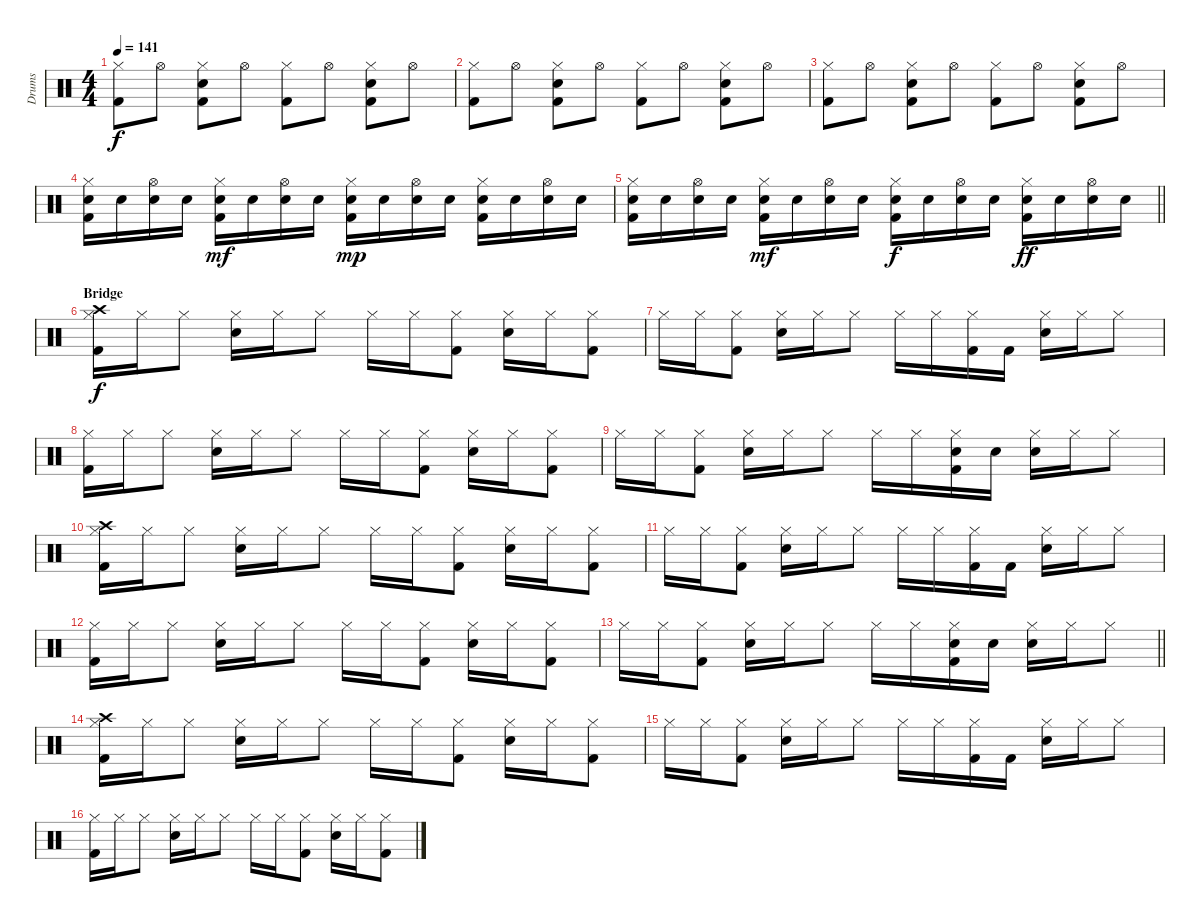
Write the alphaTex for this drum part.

\track ("Drums" "Drums") {instrument percussion}
\staff {score}
\articulation defaults
\ts (4 4)
\tempo 141
\clef neutral
\ks c
("Hi-Hat (closed)" "Kick (hit) 2").8{dy f} "Hi-Hat (open)".8 ("Hi-Hat (closed)" "Snare (hit) 2" "Kick (hit) 2").8 "Hi-Hat (open)".8 ("Hi-Hat (closed)" "Kick (hit) 2").8 "Hi-Hat (open)".8 ("Hi-Hat (closed)" "Snare (hit) 2" "Kick (hit) 2").8 "Hi-Hat (open)".8 |
("Hi-Hat (closed)" "Kick (hit) 2").8 "Hi-Hat (open)".8 ("Hi-Hat (closed)" "Snare (hit) 2" "Kick (hit) 2").8 "Hi-Hat (open)".8 ("Hi-Hat (closed)" "Kick (hit) 2").8 "Hi-Hat (open)".8 ("Hi-Hat (closed)" "Snare (hit) 2" "Kick (hit) 2").8 "Hi-Hat (open)".8 |
("Hi-Hat (closed)" "Kick (hit) 2").8 "Hi-Hat (open)".8 ("Hi-Hat (closed)" "Snare (hit) 2" "Kick (hit) 2").8 "Hi-Hat (open)".8 ("Hi-Hat (closed)" "Kick (hit) 2").8 "Hi-Hat (open)".8 ("Hi-Hat (closed)" "Snare (hit) 2" "Kick (hit) 2").8 "Hi-Hat (open)".8 |
("Hi-Hat (closed)" "Snare (hit) 2" "Kick (hit) 2").16 "Snare (hit) 2".16 ("Hi-Hat (open)" "Snare (hit) 2").16 "Snare (hit) 2".16 ("Hi-Hat (closed)" "Snare (hit) 2" "Kick (hit) 2").16{dy mf} "Snare (hit) 2".16 ("Hi-Hat (open)" "Snare (hit) 2").16 "Snare (hit) 2".16 ("Hi-Hat (closed)" "Snare (hit) 2" "Kick (hit) 2").16{dy mp} "Snare (hit) 2".16 ("Hi-Hat (open)" "Snare (hit) 2").16 "Snare (hit) 2".16 ("Hi-Hat (closed)" "Snare (hit) 2" "Kick (hit) 2").16 "Snare (hit) 2".16 ("Hi-Hat (open)" "Snare (hit) 2").16 "Snare (hit) 2".16 |
\barLineRight lightlight
("Hi-Hat (closed)" "Snare (hit) 2" "Kick (hit) 2").16 "Snare (hit) 2".16 ("Hi-Hat (open)" "Snare (hit) 2").16 "Snare (hit) 2".16 ("Hi-Hat (closed)" "Snare (hit) 2" "Kick (hit) 2").16{dy mf} "Snare (hit) 2".16 ("Hi-Hat (open)" "Snare (hit) 2").16 "Snare (hit) 2".16 ("Hi-Hat (closed)" "Snare (hit) 2" "Kick (hit) 2").16{dy f} "Snare (hit) 2".16 ("Hi-Hat (open)" "Snare (hit) 2").16 "Snare (hit) 2".16 ("Hi-Hat (closed)" "Snare (hit) 2" "Kick (hit) 2").16{dy ff} "Snare (hit) 2".16 ("Hi-Hat (open)" "Snare (hit) 2").16 "Snare (hit) 2".16 |
\section ("" "Bridge")
("Hi-Hat (closed)" "Crash high (hit)" "Kick (hit) 2").16{dy f} "Hi-Hat (closed)".16 "Hi-Hat (closed)".8 ("Hi-Hat (closed)" "Snare (hit) 2").16 "Hi-Hat (closed)".16 "Hi-Hat (closed)".8 "Hi-Hat (closed)".16 "Hi-Hat (closed)".16 ("Hi-Hat (closed)" "Kick (hit) 2").8 ("Hi-Hat (closed)" "Snare (hit) 2").16 "Hi-Hat (closed)".16 ("Hi-Hat (closed)" "Kick (hit) 2").8 |
"Hi-Hat (closed)".16 "Hi-Hat (closed)".16 ("Hi-Hat (closed)" "Kick (hit) 2").8 ("Hi-Hat (closed)" "Snare (hit) 2").16 "Hi-Hat (closed)".16 "Hi-Hat (closed)".8 "Hi-Hat (closed)".16 "Hi-Hat (closed)".16 ("Hi-Hat (closed)" "Kick (hit) 2").16 "Kick (hit) 2".16 ("Hi-Hat (closed)" "Snare (hit) 2").16 "Hi-Hat (closed)".16 "Hi-Hat (closed)".8 |
("Hi-Hat (closed)" "Kick (hit) 2").16 "Hi-Hat (closed)".16 "Hi-Hat (closed)".8 ("Hi-Hat (closed)" "Snare (hit) 2").16 "Hi-Hat (closed)".16 "Hi-Hat (closed)".8 "Hi-Hat (closed)".16 "Hi-Hat (closed)".16 ("Hi-Hat (closed)" "Kick (hit) 2").8 ("Hi-Hat (closed)" "Snare (hit) 2").16 "Hi-Hat (closed)".16 ("Hi-Hat (closed)" "Kick (hit) 2").8 |
"Hi-Hat (closed)".16 "Hi-Hat (closed)".16 ("Hi-Hat (closed)" "Kick (hit) 2").8 ("Hi-Hat (closed)" "Snare (hit) 2").16 "Hi-Hat (closed)".16 "Hi-Hat (closed)".8 "Hi-Hat (closed)".16 "Hi-Hat (closed)".16 ("Hi-Hat (closed)" "Snare (hit) 2" "Kick (hit) 2").16 "Snare (hit) 2".16 ("Hi-Hat (closed)" "Snare (hit) 2").16 "Hi-Hat (closed)".16 "Hi-Hat (closed)".8 |
("Hi-Hat (closed)" "Crash high (hit)" "Kick (hit) 2").16 "Hi-Hat (closed)".16 "Hi-Hat (closed)".8 ("Hi-Hat (closed)" "Snare (hit) 2").16 "Hi-Hat (closed)".16 "Hi-Hat (closed)".8 "Hi-Hat (closed)".16 "Hi-Hat (closed)".16 ("Hi-Hat (closed)" "Kick (hit) 2").8 ("Hi-Hat (closed)" "Snare (hit) 2").16 "Hi-Hat (closed)".16 ("Hi-Hat (closed)" "Kick (hit) 2").8 |
"Hi-Hat (closed)".16 "Hi-Hat (closed)".16 ("Hi-Hat (closed)" "Kick (hit) 2").8 ("Hi-Hat (closed)" "Snare (hit) 2").16 "Hi-Hat (closed)".16 "Hi-Hat (closed)".8 "Hi-Hat (closed)".16 "Hi-Hat (closed)".16 ("Hi-Hat (closed)" "Kick (hit) 2").16 "Kick (hit) 2".16 ("Hi-Hat (closed)" "Snare (hit) 2").16 "Hi-Hat (closed)".16 "Hi-Hat (closed)".8 |
("Hi-Hat (closed)" "Kick (hit) 2").16 "Hi-Hat (closed)".16 "Hi-Hat (closed)".8 ("Hi-Hat (closed)" "Snare (hit) 2").16 "Hi-Hat (closed)".16 "Hi-Hat (closed)".8 "Hi-Hat (closed)".16 "Hi-Hat (closed)".16 ("Hi-Hat (closed)" "Kick (hit) 2").8 ("Hi-Hat (closed)" "Snare (hit) 2").16 "Hi-Hat (closed)".16 ("Hi-Hat (closed)" "Kick (hit) 2").8 |
\barLineRight lightlight "Hi-Hat (closed)".16 "Hi-Hat (closed)".16
("Hi-Hat (closed)" "Kick (hit) 2").8 ("Hi-Hat (closed)" "Snare (hit) 2").16 "Hi-Hat (closed)".16 "Hi-Hat (closed)".8 "Hi-Hat (closed)".16 "Hi-Hat (closed)".16 ("Hi-Hat (closed)" "Snare (hit) 2" "Kick (hit) 2").16 "Snare (hit) 2".16 ("Hi-Hat (closed)" "Snare (hit) 2").16 "Hi-Hat (closed)".16 "Hi-Hat (closed)".8 |
("Hi-Hat (closed)" "Crash high (hit)" "Kick (hit) 2").16 "Hi-Hat (closed)".16 "Hi-Hat (closed)".8 ("Hi-Hat (closed)" "Snare (hit) 2").16 "Hi-Hat (closed)".16 "Hi-Hat (closed)".8 "Hi-Hat (closed)".16 "Hi-Hat (closed)".16 ("Hi-Hat (closed)" "Kick (hit) 2").8 ("Hi-Hat (closed)" "Snare (hit) 2").16 "Hi-Hat (closed)".16 ("Hi-Hat (closed)" "Kick (hit) 2").8 |
"Hi-Hat (closed)".16 "Hi-Hat (closed)".16 ("Hi-Hat (closed)" "Kick (hit) 2").8 ("Hi-Hat (closed)" "Snare (hit) 2").16 "Hi-Hat (closed)".16 "Hi-Hat (closed)".8 "Hi-Hat (closed)".16 "Hi-Hat (closed)".16 ("Hi-Hat (closed)" "Kick (hit) 2").16 "Kick (hit) 2".16 ("Hi-Hat (closed)" "Snare (hit) 2").16 "Hi-Hat (closed)".16 "Hi-Hat (closed)".8 |
("Hi-Hat (closed)" "Kick (hit) 2").16 "Hi-Hat (closed)".16 "Hi-Hat (closed)".8 ("Hi-Hat (closed)" "Snare (hit) 2").16 "Hi-Hat (closed)".16 "Hi-Hat (closed)".8 "Hi-Hat (closed)".16 "Hi-Hat (closed)".16 ("Hi-Hat (closed)" "Kick (hit) 2").8 ("Hi-Hat (closed)" "Snare (hit) 2").16 "Hi-Hat (closed)".16 ("Hi-Hat (closed)" "Kick (hit) 2").8
